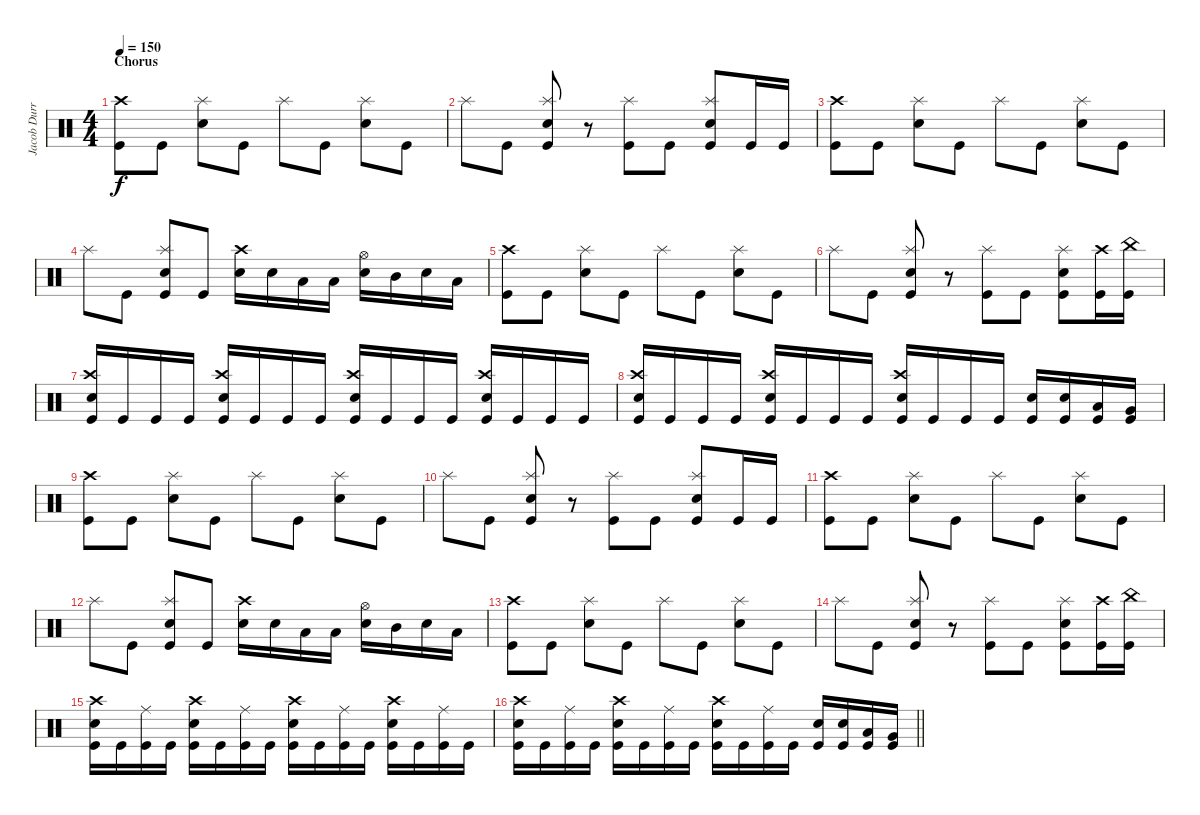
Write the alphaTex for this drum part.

\track ("Jacob Durret" "Jacob Durr") {instrument percussion}
\staff {score}
\articulation defaults
\ts (4 4)
\section ("" "Chorus")
\tempo 150
\clef neutral
\ks c
("Kick (hit)" "Crash high (hit)").8{dy f} "Kick (hit)".8 ("Splash (hit)" "Snare (hit) 2").8 "Kick (hit)".8 "Splash (hit)".8 "Kick (hit)".8 ("Splash (hit)" "Snare (hit) 2").8 "Kick (hit)".8 |
"Splash (hit)".8 "Kick (hit)".8 ("Kick (hit)" "Snare (hit) 2" "Splash (hit)").8 r.8 ("Kick (hit)" "Splash (hit)").8 "Kick (hit)".8 ("Kick (hit)" "Splash (hit)" "Snare (hit) 2").8 "Kick (hit)".16 "Kick (hit)".16 |
("Kick (hit)" "Crash high (hit)").8 "Kick (hit)".8 ("Splash (hit)" "Snare (hit) 2").8 "Kick (hit)".8 "Splash (hit)".8 "Kick (hit)".8 ("Splash (hit)" "Snare (hit) 2").8 "Kick (hit)".8 |
"Splash (hit)".8 "Kick (hit)".8 ("Kick (hit)" "Snare (hit) 2" "Splash (hit)").8 "Kick (hit)".8 ("Snare (hit) 2" "Crash high (hit)").16 "Snare (hit) 2".16 "Low Tom (hit)".16 "Low Tom (hit)".16 ("Snare (hit) 2" "Hi-Hat (open)").16 "Mid Tom (hit)".16 "Snare (hit) 2".16 "Low Tom (hit)".16 |
("Kick (hit)" "Crash high (hit)").8 "Kick (hit)".8 ("Splash (hit)" "Snare (hit) 2").8 "Kick (hit)".8 "Splash (hit)".8 "Kick (hit)".8 ("Splash (hit)" "Snare (hit) 2").8 "Kick (hit)".8 |
"Splash (hit)".8 "Kick (hit)".8 ("Kick (hit)" "Snare (hit) 2" "Splash (hit)").8 r.8 ("Kick (hit)" "Splash (hit)").8 "Kick (hit)".8 ("Kick (hit)" "Splash (hit)" "Snare (hit) 2").8 ("Kick (hit)" "Crash high (hit)").16 ("Kick (hit)" "China (hit)").16 |
("Crash high (hit)" "Kick (hit)" "Snare (hit) 2").16 "Kick (hit)".16 "Kick (hit)".16 "Kick (hit)".16 ("Kick (hit)" "Crash high (hit)" "Snare (hit) 2").16 "Kick (hit)".16 "Kick (hit)".16 "Kick (hit)".16 ("Kick (hit)" "Crash high (hit)" "Snare (hit) 2").16 "Kick (hit)".16 "Kick (hit)".16 "Kick (hit)".16 ("Kick (hit)" "Crash high (hit)" "Snare (hit) 2").16 "Kick (hit)".16 "Kick (hit)".16 "Kick (hit)".16 |
("Crash high (hit)" "Kick (hit)" "Snare (hit) 2").16 "Kick (hit)".16 "Kick (hit)".16 "Kick (hit)".16 ("Kick (hit)" "Crash high (hit)" "Snare (hit) 2").16 "Kick (hit)".16 "Kick (hit)".16 "Kick (hit)".16 ("Kick (hit)" "Crash high (hit)" "Snare (hit) 2").16 "Kick (hit)".16 "Kick (hit)".16 "Kick (hit)".16 ("Kick (hit)" "Snare (hit) 2").16 ("Kick (hit)" "Snare (hit) 2").16 ("Kick (hit)" "Low Tom (hit)").16 ("Kick (hit)" "Very Low Tom (hit)").16 |
("Kick (hit)" "Crash high (hit)").8 "Kick (hit)".8 ("Splash (hit)" "Snare (hit) 2").8 "Kick (hit)".8 "Splash (hit)".8 "Kick (hit)".8 ("Splash (hit)" "Snare (hit) 2").8 "Kick (hit)".8 |
"Splash (hit)".8 "Kick (hit)".8 ("Kick (hit)" "Snare (hit) 2" "Splash (hit)").8 r.8 ("Kick (hit)" "Splash (hit)").8 "Kick (hit)".8 ("Kick (hit)" "Splash (hit)" "Snare (hit) 2").8 "Kick (hit)".16 "Kick (hit)".16 |
("Kick (hit)" "Crash high (hit)").8 "Kick (hit)".8 ("Splash (hit)" "Snare (hit) 2").8 "Kick (hit)".8 "Splash (hit)".8 "Kick (hit)".8 ("Splash (hit)" "Snare (hit) 2").8 "Kick (hit)".8 |
"Splash (hit)".8 "Kick (hit)".8 ("Kick (hit)" "Snare (hit) 2" "Splash (hit)").8 "Kick (hit)".8 ("Snare (hit) 2" "Crash high (hit)").16 "Snare (hit) 2".16 "Low Tom (hit)".16 "Low Tom (hit)".16 ("Snare (hit) 2" "Hi-Hat (open)").16 "Mid Tom (hit)".16 "Snare (hit) 2".16 "Low Tom (hit)".16 |
("Kick (hit)" "Crash high (hit)").8 "Kick (hit)".8 ("Splash (hit)" "Snare (hit) 2").8 "Kick (hit)".8 "Splash (hit)".8 "Kick (hit)".8 ("Splash (hit)" "Snare (hit) 2").8 "Kick (hit)".8 |
"Splash (hit)".8 "Kick (hit)".8 ("Kick (hit)" "Snare (hit) 2" "Splash (hit)").8 r.8 ("Kick (hit)" "Splash (hit)").8 "Kick (hit)".8 ("Kick (hit)" "Splash (hit)" "Snare (hit) 2").8 ("Kick (hit)" "Crash high (hit)").16 ("Kick (hit)" "China (hit)").16 |
("Crash high (hit)" "Kick (hit)" "Snare (hit) 2").16 "Kick (hit)".16 ("Kick (hit)" "Ride (middle)").16 "Kick (hit)".16 ("Kick (hit)" "Crash high (hit)" "Snare (hit) 2").16 "Kick (hit)".16 ("Kick (hit)" "Ride (middle)").16 "Kick (hit)".16 ("Kick (hit)" "Crash high (hit)" "Snare (hit) 2").16 "Kick (hit)".16 ("Kick (hit)" "Ride (middle)").16 "Kick (hit)".16 ("Kick (hit)" "Crash high (hit)" "Snare (hit) 2").16 "Kick (hit)".16 ("Kick (hit)" "Ride (middle)").16 "Kick (hit)".16 |
\barLineRight lightlight
("Crash high (hit)" "Kick (hit)" "Snare (hit) 2").16 "Kick (hit)".16 ("Kick (hit)" "Ride (middle)").16 "Kick (hit)".16 ("Kick (hit)" "Crash high (hit)" "Snare (hit) 2").16 "Kick (hit)".16 ("Kick (hit)" "Ride (middle)").16 "Kick (hit)".16 ("Kick (hit)" "Crash high (hit)" "Snare (hit) 2").16 "Kick (hit)".16 ("Kick (hit)" "Ride (middle)").16 "Kick (hit)".16 ("Kick (hit)" "Snare (hit) 2").16 ("Kick (hit)" "Snare (hit) 2").16 ("Kick (hit)" "Low Tom (hit)").16 ("Kick (hit)" "Very Low Tom (hit)").16
